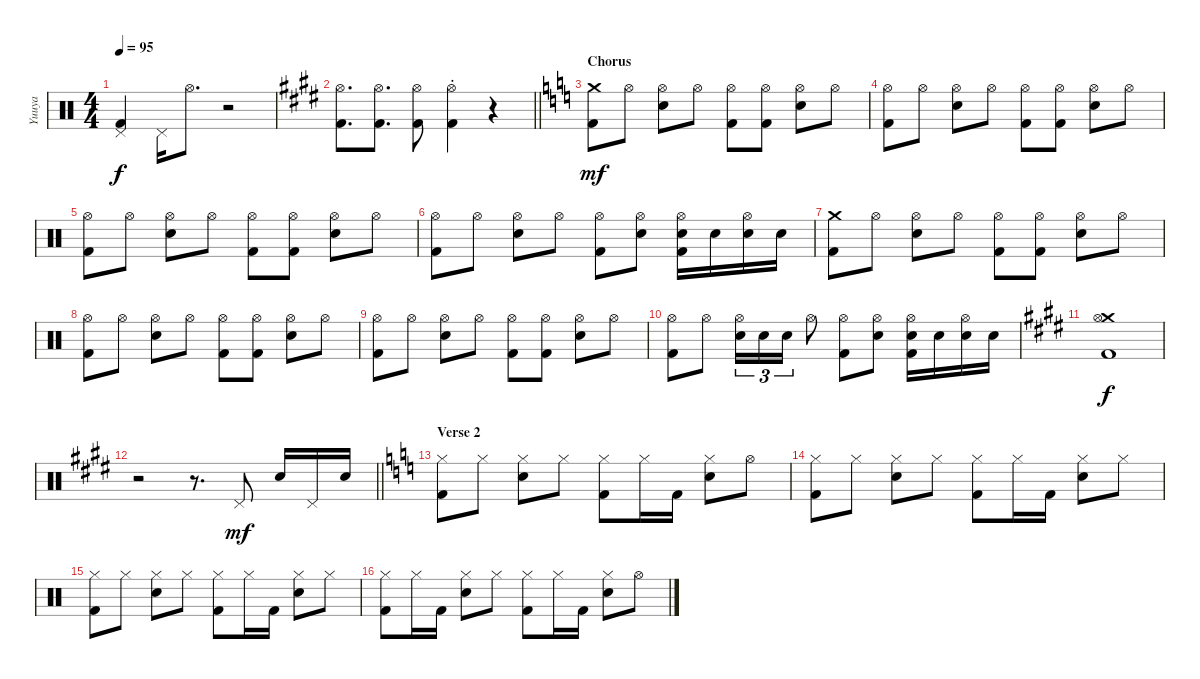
\track ("Yuuya" "Yuuya") {instrument percussion}
\staff {score}
\articulation defaults
\ts (4 4)
\tempo 95
\clef neutral
\ks c
("Pedal Hi-Hat (hit)" "Kick (hit) 2").4{dy f} "Pedal Hi-Hat (hit)".16 "Hi-Hat (open)".8{d} r.2 |
\barLineRight lightlight
\ks e
("Kick (hit) 2" "Hi-Hat (open)").8{d} ("Kick (hit) 2" "Hi-Hat (open)").8{d} ("Kick (hit) 2" "Hi-Hat (open)").8 ("Kick (hit) 2"{st} "Hi-Hat (open)"{st}).4 r.4 |
\section ("" "Chorus")
\ks c
("Crash medium (hit)" "Kick (hit) 2").8{dy mf} "Hi-Hat (open)".8 ("Hi-Hat (open)" "Snare (hit) 2").8 "Hi-Hat (open)".8 ("Hi-Hat (open)" "Kick (hit) 2").8 ("Hi-Hat (open)" "Kick (hit) 2").8 ("Hi-Hat (open)" "Snare (hit) 2").8 "Hi-Hat (open)".8 |
("Hi-Hat (open)" "Kick (hit) 2").8 "Hi-Hat (open)".8 ("Hi-Hat (open)" "Snare (hit) 2").8 "Hi-Hat (open)".8 ("Hi-Hat (open)" "Kick (hit) 2").8 ("Hi-Hat (open)" "Kick (hit) 2").8 ("Hi-Hat (open)" "Snare (hit) 2").8 "Hi-Hat (open)".8 |
("Hi-Hat (open)" "Kick (hit) 2").8 "Hi-Hat (open)".8 ("Hi-Hat (open)" "Snare (hit) 2").8 "Hi-Hat (open)".8 ("Hi-Hat (open)" "Kick (hit) 2").8 ("Hi-Hat (open)" "Kick (hit) 2").8 ("Hi-Hat (open)" "Snare (hit) 2").8 "Hi-Hat (open)".8 |
("Hi-Hat (open)" "Kick (hit) 2").8 "Hi-Hat (open)".8 ("Hi-Hat (open)" "Snare (hit) 2").8 "Hi-Hat (open)".8 ("Hi-Hat (open)" "Kick (hit) 2").8 ("Hi-Hat (open)" "Snare (hit) 2").8 ("Hi-Hat (open)" "Snare (hit) 2" "Kick (hit) 2").16 "Snare (hit) 2".16 ("Hi-Hat (open)" "Snare (hit) 2").16 "Snare (hit) 2".16 |
("Crash medium (hit)" "Kick (hit) 2").8 "Hi-Hat (open)".8 ("Hi-Hat (open)" "Snare (hit) 2").8 "Hi-Hat (open)".8 ("Hi-Hat (open)" "Kick (hit) 2").8 ("Hi-Hat (open)" "Kick (hit) 2").8 ("Hi-Hat (open)" "Snare (hit) 2").8 "Hi-Hat (open)".8 |
("Hi-Hat (open)" "Kick (hit) 2").8 "Hi-Hat (open)".8 ("Hi-Hat (open)" "Snare (hit) 2").8 "Hi-Hat (open)".8 ("Hi-Hat (open)" "Kick (hit) 2").8 ("Hi-Hat (open)" "Kick (hit) 2").8 ("Hi-Hat (open)" "Snare (hit) 2").8 "Hi-Hat (open)".8 |
("Hi-Hat (open)" "Kick (hit) 2").8 "Hi-Hat (open)".8 ("Hi-Hat (open)" "Snare (hit) 2").8 "Hi-Hat (open)".8 ("Hi-Hat (open)" "Kick (hit) 2").8 ("Hi-Hat (open)" "Kick (hit) 2").8 ("Hi-Hat (open)" "Snare (hit) 2").8 "Hi-Hat (open)".8 |
("Hi-Hat (open)" "Kick (hit) 2").8 "Hi-Hat (open)".8 ("Hi-Hat (open)" "Snare (hit) 2").16{tu (3 2)} "Snare (hit) 2".16{tu (3 2)} "Snare (hit) 2".16{tu (3 2)} "Hi-Hat (open)".8 ("Hi-Hat (open)" "Kick (hit) 2").8 ("Hi-Hat (open)" "Snare (hit) 2").8 ("Hi-Hat (open)" "Snare (hit) 2" "Kick (hit) 2").16 "Snare (hit) 2".16 ("Hi-Hat (open)" "Snare (hit) 2").16 "Snare (hit) 2".16 |
\ks e
("Crash medium (hit)" "Hi-Hat (open)" "Kick (hit) 2").1{dy f} |
\barLineRight lightlight
r.2 r.8{d} "Pedal Hi-Hat (hit)".8{dy mf} "Snare (hit) 2".16 "Pedal Hi-Hat (hit)".16 "Snare (hit) 2".16 |
\section ("" "Verse 2")
\ks c
("Hi-Hat (closed)" "Kick (hit) 2").8 "Hi-Hat (closed)".8 ("Hi-Hat (closed)" "Snare (hit) 2").8 "Hi-Hat (closed)".8 ("Hi-Hat (closed)" "Kick (hit) 2").8 "Hi-Hat (closed)".16 "Kick (hit) 2".16 ("Hi-Hat (closed)" "Snare (hit) 2").8 "Hi-Hat (open)".8 |
("Hi-Hat (closed)" "Kick (hit) 2").8 "Hi-Hat (closed)".8 ("Hi-Hat (closed)" "Snare (hit) 2").8 "Hi-Hat (closed)".8 ("Hi-Hat (closed)" "Kick (hit) 2").8 "Hi-Hat (closed)".16 "Kick (hit) 2".16 ("Hi-Hat (closed)" "Snare (hit) 2").8 "Hi-Hat (closed)".8 |
("Hi-Hat (closed)" "Kick (hit) 2").8 "Hi-Hat (closed)".8 ("Hi-Hat (closed)" "Snare (hit) 2").8 "Hi-Hat (closed)".8 ("Hi-Hat (closed)" "Kick (hit) 2").8 "Hi-Hat (closed)".16 "Kick (hit) 2".16 ("Hi-Hat (closed)" "Snare (hit) 2").8 "Hi-Hat (closed)".8 |
("Hi-Hat (closed)" "Kick (hit) 2").8 "Hi-Hat (closed)".16 "Kick (hit) 2".16 ("Hi-Hat (closed)" "Snare (hit) 2").8 "Hi-Hat (closed)".8 ("Hi-Hat (closed)" "Kick (hit) 2").8 "Hi-Hat (closed)".16 "Kick (hit) 2".16 ("Hi-Hat (closed)" "Snare (hit) 2").8 "Hi-Hat (open)".8
